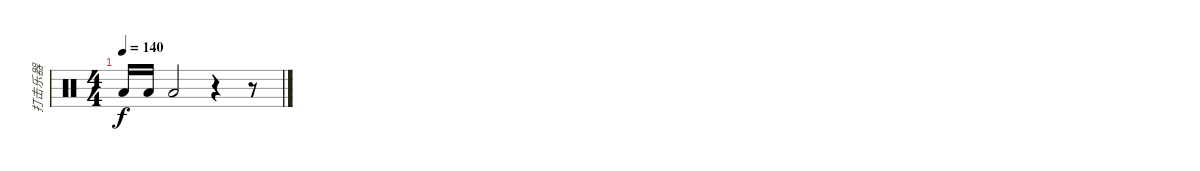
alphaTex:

\track ("打击乐器" "打击乐器") {instrument percussion}
\staff {score}
\articulation defaults
\ts (4 4)
\tempo 140
\clef neutral
\ks c "Low Floor Tom (hit)".16{dy f} "Low Floor Tom (hit)".16 "Low Floor Tom (hit)".2
r.4 r.8
